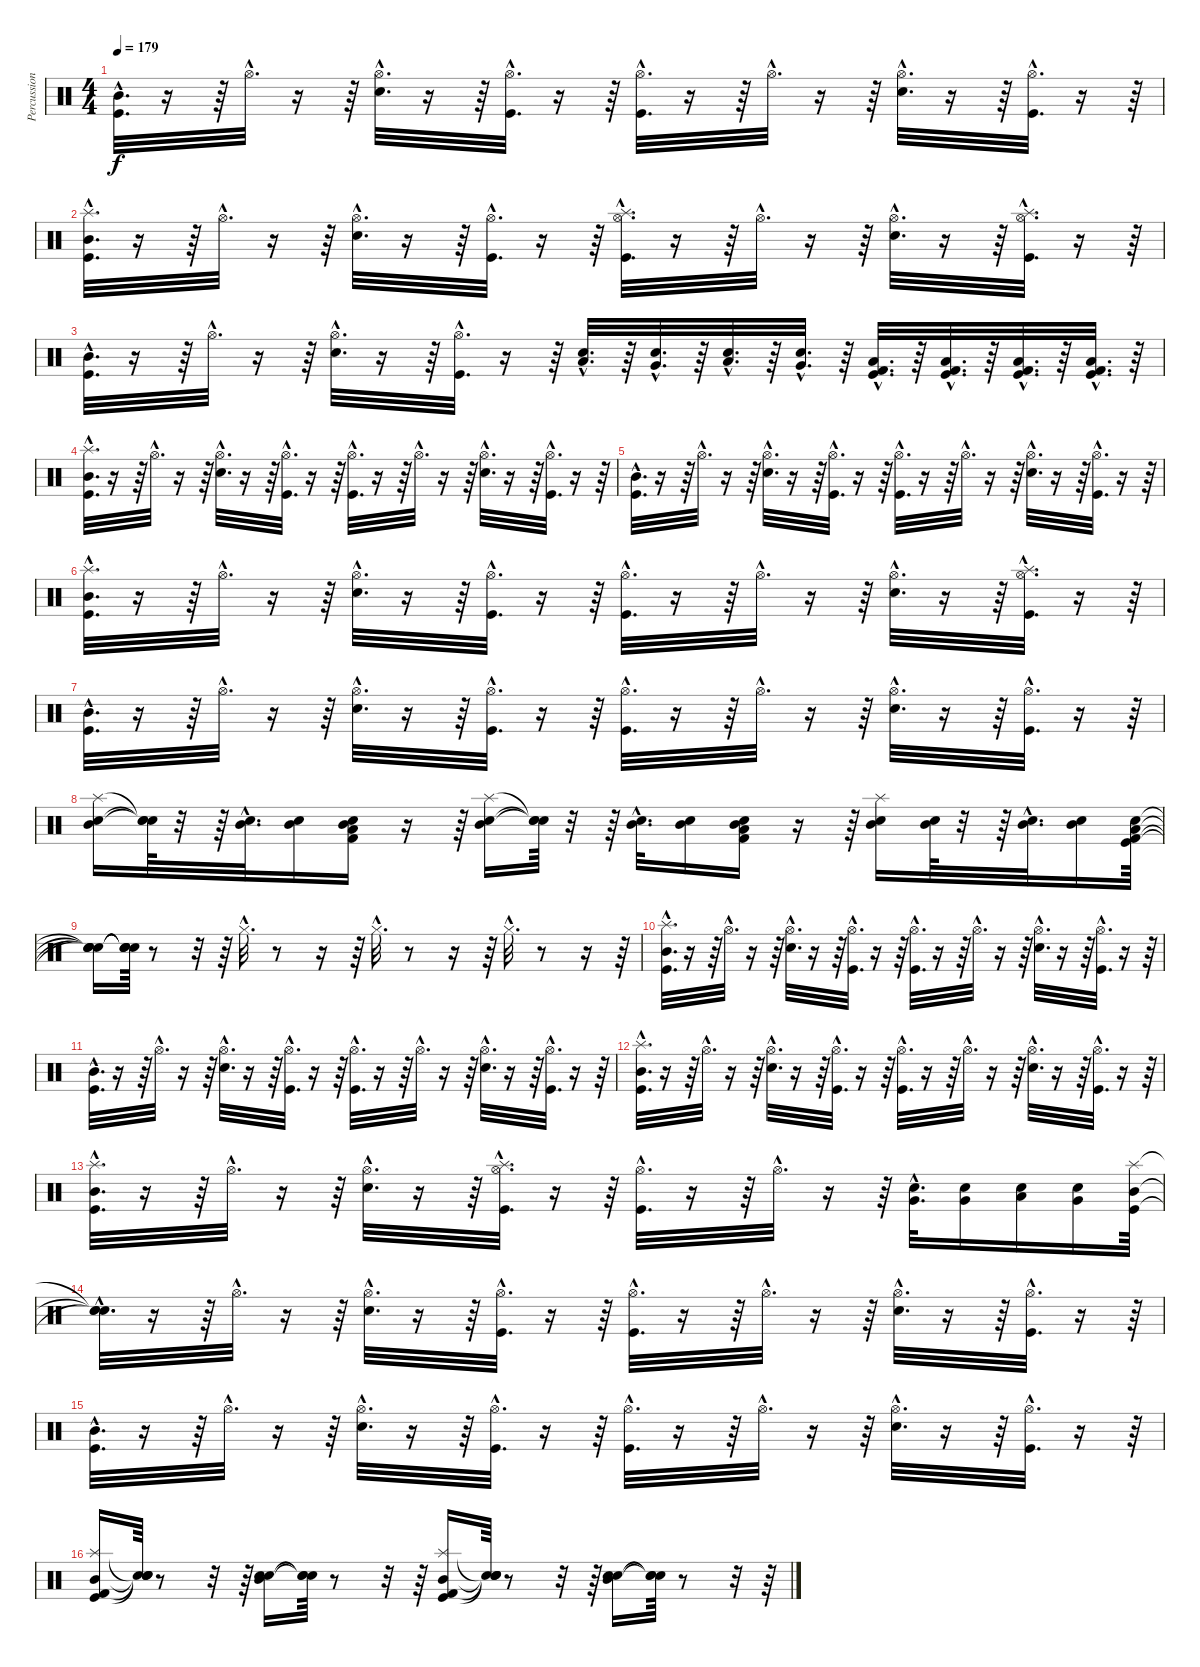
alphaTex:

\track ("Percussion" "Percussion") {instrument percussion}
\staff {score}
\articulation defaults
\ts (4 4)
\tempo 179
\clef neutral
\ks c
("Mid Tom (hit)"{hac} "Kick (hit)"{hac}).32{d dy f} r.16 r.64 "Hi-Hat (open)"{hac}.32{d} r.16 r.64 ("Hi-Hat (open)"{hac} "Snare (hit) 2"{hac}).32{d} r.16 r.64 ("Hi-Hat (open)"{hac} "Kick (hit)"{hac}).32{d} r.16 r.64 ("Hi-Hat (open)"{hac} "Kick (hit)"{hac}).32{d} r.16 r.64 "Hi-Hat (open)"{hac}.32{d} r.16 r.64 ("Hi-Hat (open)"{hac} "Snare (hit) 2"{hac}).32{d} r.16 r.64 ("Hi-Hat (open)"{hac} "Kick (hit)"{hac}).32{d} r.16 r.64 |
("Splash (hit)"{hac} "Mid Tom (hit)"{hac} "Kick (hit)"{hac}).32{d} r.16 r.64 "Hi-Hat (open)"{hac}.32{d} r.16 r.64 ("Hi-Hat (open)"{hac} "Snare (hit) 2"{hac}).32{d} r.16 r.64 ("Hi-Hat (open)"{hac} "Kick (hit)"{hac}).32{d} r.16 r.64 ("Splash (hit)"{hac} "Hi-Hat (open)"{hac} "Kick (hit)"{hac}).32{d} r.16 r.64 "Hi-Hat (open)"{hac}.32{d} r.16 r.64 ("Hi-Hat (open)"{hac} "Snare (hit) 2"{hac}).32{d} r.16 r.64 ("Splash (hit)"{hac} "Hi-Hat (open)"{hac} "Kick (hit)"{hac}).32{d} r.16 r.64 |
("Mid Tom (hit)"{hac} "Kick (hit)"{hac}).32{d} r.16 r.64 "Hi-Hat (open)"{hac}.32{d} r.16 r.64 ("Hi-Hat (open)"{hac} "Snare (hit) 2"{hac}).32{d} r.16 r.64 ("Hi-Hat (open)"{hac} "Kick (hit)"{hac}).32{d} r.16 r.64 ("Electric Snare (hit)"{hac} "Low Tom (hit)"{hac}).32{d} r.64 ("Electric Snare (hit)"{hac} "Very Low Tom (hit)"{hac}).32{d} r.64 ("Electric Snare (hit)"{hac} "Low Tom (hit)"{hac}).32{d} r.64 ("Electric Snare (hit)"{hac} "Very Low Tom (hit)"{hac}).32{d} r.64 ("Kick (hit)"{hac} "Kick (hit) 2"{hac} "Low Floor Tom (hit)"{hac}).32{d} r.64 ("Kick (hit)"{hac} "Kick (hit) 2"{hac} "Low Floor Tom (hit)"{hac}).32{d} r.64 ("Kick (hit)"{hac} "Low Floor Tom (hit)"{hac} "Kick (hit) 2"{hac}).32{d} r.64 ("Kick (hit)"{hac} "Kick (hit) 2"{hac} "Low Floor Tom (hit)"{hac}).32{d} r.64 |
("Splash (hit)"{hac} "Mid Tom (hit)"{hac} "Kick (hit)"{hac}).32{d} r.16 r.64 "Hi-Hat (open)"{hac}.32{d} r.16 r.64 ("Hi-Hat (open)"{hac} "Snare (hit) 2"{hac}).32{d} r.16 r.64 ("Hi-Hat (open)"{hac} "Kick (hit)"{hac}).32{d} r.16 r.64 ("Hi-Hat (open)"{hac} "Kick (hit)"{hac}).32{d} r.16 r.64 "Hi-Hat (open)"{hac}.32{d} r.16 r.64 ("Hi-Hat (open)"{hac} "Snare (hit) 2"{hac}).32{d} r.16 r.64 ("Hi-Hat (open)"{hac} "Kick (hit)"{hac}).32{d} r.16 r.64 |
("Mid Tom (hit)"{hac} "Kick (hit)"{hac}).32{d} r.16 r.64 "Hi-Hat (open)"{hac}.32{d} r.16 r.64 ("Hi-Hat (open)"{hac} "Snare (hit) 2"{hac}).32{d} r.16 r.64 ("Hi-Hat (open)"{hac} "Kick (hit)"{hac}).32{d} r.16 r.64 ("Hi-Hat (open)"{hac} "Kick (hit)"{hac}).32{d} r.16 r.64 "Hi-Hat (open)"{hac}.32{d} r.16 r.64 ("Hi-Hat (open)"{hac} "Snare (hit) 2"{hac}).32{d} r.16 r.64 ("Hi-Hat (open)"{hac} "Kick (hit)"{hac}).32{d} r.16 r.64 |
("Splash (hit)"{hac} "Mid Tom (hit)"{hac} "Kick (hit)"{hac}).32{d} r.16 r.64 "Hi-Hat (open)"{hac}.32{d} r.16 r.64 ("Hi-Hat (open)"{hac} "Snare (hit) 2"{hac}).32{d} r.16 r.64 ("Hi-Hat (open)"{hac} "Kick (hit)"{hac}).32{d} r.16 r.64 ("Hi-Hat (open)"{hac} "Kick (hit)"{hac}).32{d} r.16 r.64 "Hi-Hat (open)"{hac}.32{d} r.16 r.64 ("Hi-Hat (open)"{hac} "Snare (hit) 2"{hac}).32{d} r.16 r.64 ("Splash (hit)"{hac} "Hi-Hat (open)"{hac} "Kick (hit)"{hac}).32{d} r.16 r.64 |
("Mid Tom (hit)"{hac} "Kick (hit)"{hac}).32{d} r.16 r.64 "Hi-Hat (open)"{hac}.32{d} r.16 r.64 ("Hi-Hat (open)"{hac} "Snare (hit) 2"{hac}).32{d} r.16 r.64 ("Hi-Hat (open)"{hac} "Kick (hit)"{hac}).32{d} r.16 r.64 ("Hi-Hat (open)"{hac} "Kick (hit)"{hac}).32{d} r.16 r.64 "Hi-Hat (open)"{hac}.32{d} r.16 r.64 ("Hi-Hat (open)"{hac} "Snare (hit) 2"{hac}).32{d} r.16 r.64 ("Hi-Hat (open)"{hac} "Kick (hit)"{hac}).32{d} r.16 r.64 |
("Mid Tom (hit)" "Snare (hit) 2" "Splash (hit)").16 ("Snare (hit)"{t} "Snare (hit)"{t} "Snare (hit)"{t}).64 r.32 r.64 ("Mid Tom (hit)"{hac} "Snare (hit) 2"{hac}).32{d} ("Mid Tom (hit)" "Snare (hit) 2").16 ("Mid Tom (hit)" "Snare (hit) 2" "Kick (hit) 2" "Low Floor Tom (hit)").16 r.16 r.64 ("Mid Tom (hit)" "Snare (hit) 2" "Splash (hit)").16 ("Snare (hit)"{t} "Snare (hit)"{t} "Snare (hit)"{t}).64 r.32 r.64 ("Mid Tom (hit)"{hac} "Snare (hit) 2"{hac}).32{d} ("Mid Tom (hit)" "Snare (hit) 2").16 ("Mid Tom (hit)" "Low Floor Tom (hit)" "Snare (hit) 2" "Kick (hit) 2").16 r.16 r.64 ("Mid Tom (hit)" "Snare (hit) 2" "Splash (hit)").16 ("Mid Tom (hit)" "Snare (hit) 2").64 r.32 r.64 ("Mid Tom (hit)"{hac} "Snare (hit) 2"{hac}).32{d} ("Mid Tom (hit)" "Snare (hit) 2").16 ("Kick (hit)" "Kick (hit) 2" "Snare (hit) 2" "Low Tom (hit)").64 |
("Snare (hit)"{t} "Snare (hit)"{t} "Snare (hit)"{t} "Snare (hit)"{t}).16 ("Snare (hit)"{t} "Snare (hit)"{t} "Snare (hit)"{t} "Snare (hit)"{t}).64 r.8 r.32 r.64 "Hi-Hat (closed)"{hac}.32{d} r.8 r.16 r.64 "Hi-Hat (closed)"{hac}.32{d} r.8 r.16 r.64 "Hi-Hat (closed)"{hac}.32{d} r.8 r.16 r.64 |
("Splash (hit)"{hac} "Mid Tom (hit)"{hac} "Kick (hit)"{hac}).32{d} r.16 r.64 "Hi-Hat (open)"{hac}.32{d} r.16 r.64 ("Hi-Hat (open)"{hac} "Snare (hit) 2"{hac}).32{d} r.16 r.64 ("Hi-Hat (open)"{hac} "Kick (hit)"{hac}).32{d} r.16 r.64 ("Hi-Hat (open)"{hac} "Kick (hit)"{hac}).32{d} r.16 r.64 "Hi-Hat (open)"{hac}.32{d} r.16 r.64 ("Hi-Hat (open)"{hac} "Snare (hit) 2"{hac}).32{d} r.16 r.64 ("Hi-Hat (open)"{hac} "Kick (hit)"{hac}).32{d} r.16 r.64 |
("Mid Tom (hit)"{hac} "Kick (hit)"{hac}).32{d} r.16 r.64 "Hi-Hat (open)"{hac}.32{d} r.16 r.64 ("Hi-Hat (open)"{hac} "Snare (hit) 2"{hac}).32{d} r.16 r.64 ("Hi-Hat (open)"{hac} "Kick (hit)"{hac}).32{d} r.16 r.64 ("Hi-Hat (open)"{hac} "Kick (hit)"{hac}).32{d} r.16 r.64 "Hi-Hat (open)"{hac}.32{d} r.16 r.64 ("Hi-Hat (open)"{hac} "Snare (hit) 2"{hac}).32{d} r.16 r.64 ("Hi-Hat (open)"{hac} "Kick (hit)"{hac}).32{d} r.16 r.64 |
("Splash (hit)"{hac} "Mid Tom (hit)"{hac} "Kick (hit)"{hac}).32{d} r.16 r.64 "Hi-Hat (open)"{hac}.32{d} r.16 r.64 ("Hi-Hat (open)"{hac} "Snare (hit) 2"{hac}).32{d} r.16 r.64 ("Hi-Hat (open)"{hac} "Kick (hit)"{hac}).32{d} r.16 r.64 ("Hi-Hat (open)"{hac} "Kick (hit)"{hac}).32{d} r.16 r.64 "Hi-Hat (open)"{hac}.32{d} r.16 r.64 ("Hi-Hat (open)"{hac} "Snare (hit) 2"{hac}).32{d} r.16 r.64 ("Hi-Hat (open)"{hac} "Kick (hit)"{hac}).32{d} r.16 r.64 |
("Splash (hit)"{hac} "Mid Tom (hit)"{hac} "Kick (hit)"{hac}).32{d} r.16 r.64 "Hi-Hat (open)"{hac}.32{d} r.16 r.64 ("Hi-Hat (open)"{hac} "Snare (hit) 2"{hac}).32{d} r.16 r.64 ("Splash (hit)"{hac} "Hi-Hat (open)"{hac} "Kick (hit)"{hac}).32{d} r.16 r.64 ("Hi-Hat (open)"{hac} "Kick (hit)"{hac}).32{d} r.16 r.64 "Hi-Hat (open)"{hac}.32{d} r.16 r.64 ("Snare (hit) 2"{hac} "Very Low Tom (hit)"{hac}).32{d} ("Snare (hit) 2" "Very Low Tom (hit)").16 ("Snare (hit) 2" "Low Tom (hit)").16 ("Snare (hit) 2" "Very Low Tom (hit)").16 ("Splash (hit)" "Mid Tom (hit)" "Kick (hit)").64 |
("Snare (hit)"{hac t} "Snare (hit)"{hac t} "Snare (hit)"{hac t}).32{d} r.16 r.64 "Hi-Hat (open)"{hac}.32{d} r.16 r.64 ("Hi-Hat (open)"{hac} "Snare (hit) 2"{hac}).32{d} r.16 r.64 ("Hi-Hat (open)"{hac} "Kick (hit)"{hac}).32{d} r.16 r.64 ("Hi-Hat (open)"{hac} "Kick (hit)"{hac}).32{d} r.16 r.64 "Hi-Hat (open)"{hac}.32{d} r.16 r.64 ("Hi-Hat (open)"{hac} "Snare (hit) 2"{hac}).32{d} r.16 r.64 ("Hi-Hat (open)"{hac} "Kick (hit)"{hac}).32{d} r.16 r.64 |
("Mid Tom (hit)"{hac} "Kick (hit)"{hac}).32{d} r.16 r.64 "Hi-Hat (open)"{hac}.32{d} r.16 r.64 ("Hi-Hat (open)"{hac} "Snare (hit) 2"{hac}).32{d} r.16 r.64 ("Hi-Hat (open)"{hac} "Kick (hit)"{hac}).32{d} r.16 r.64 ("Hi-Hat (open)"{hac} "Kick (hit)"{hac}).32{d} r.16 r.64 "Hi-Hat (open)"{hac}.32{d} r.16 r.64 ("Hi-Hat (open)"{hac} "Snare (hit) 2"{hac}).32{d} r.16 r.64 ("Hi-Hat (open)"{hac} "Kick (hit)"{hac}).32{d} r.16 r.64 |
("Mid Tom (hit)" "Kick (hit)" "Splash (hit)" "Kick (hit) 2").16 ("Snare (hit)"{t} "Snare (hit)"{t} "Snare (hit)"{t} "Snare (hit)"{t}).64 r.8 r.32 r.64 ("Mid Tom (hit)" "Snare (hit) 2" "Electric Snare (hit)").16 ("Snare (hit)"{t} "Snare (hit)"{t} "Snare (hit)"{t}).64 r.8 r.32 r.64 ("Mid Tom (hit)" "Kick (hit)" "Splash (hit)" "Kick (hit) 2").16 ("Snare (hit)"{t} "Snare (hit)"{t} "Snare (hit)"{t} "Snare (hit)"{t}).64 r.8 r.32 r.64 ("Mid Tom (hit)" "Snare (hit) 2" "Electric Snare (hit)").16 ("Snare (hit)"{t} "Snare (hit)"{t} "Snare (hit)"{t}).64 r.8 r.32 r.64
